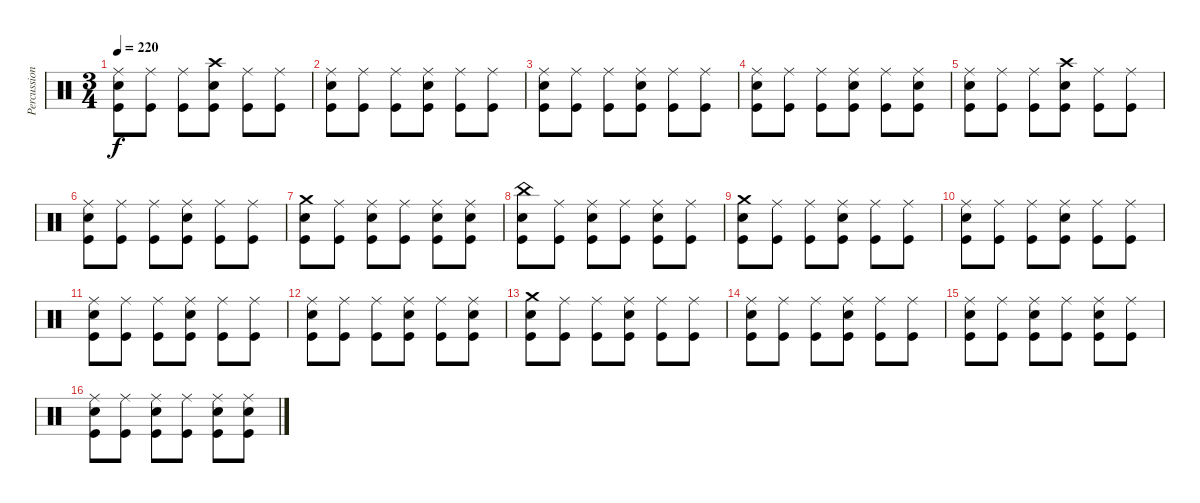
\track ("Percussion" "Percussion") {instrument percussion}
\staff {score}
\articulation defaults
\ts (3 4)
\tempo 220
\clef neutral
\ks c
("Ride (middle)" "Electric Snare (hit)" "Kick (hit)").8{dy f} ("Ride (middle)" "Kick (hit)").8 ("Ride (middle)" "Kick (hit)").8 ("Crash high (hit)" "Electric Snare (hit)" "Kick (hit)").8 ("Ride (middle)" "Kick (hit)").8 ("Ride (middle)" "Kick (hit)").8 |
("Ride (middle)" "Electric Snare (hit)" "Kick (hit)").8 ("Ride (middle)" "Kick (hit)").8 ("Ride (middle)" "Kick (hit)").8 ("Ride (middle)" "Electric Snare (hit)" "Kick (hit)").8 ("Ride (middle)" "Kick (hit)").8 ("Ride (middle)" "Kick (hit)").8 |
("Ride (middle)" "Electric Snare (hit)" "Kick (hit)").8 ("Ride (middle)" "Kick (hit)").8 ("Ride (middle)" "Kick (hit)").8 ("Ride (middle)" "Electric Snare (hit)" "Kick (hit)").8 ("Ride (middle)" "Kick (hit)").8 ("Ride (middle)" "Kick (hit)").8 |
("Ride (middle)" "Electric Snare (hit)" "Kick (hit)").8 ("Ride (middle)" "Kick (hit)").8 ("Ride (middle)" "Kick (hit)").8 ("Ride (middle)" "Electric Snare (hit)" "Kick (hit)").8 ("Ride (middle)" "Kick (hit)").8 ("Ride (middle)" "Electric Snare (hit)" "Kick (hit)").8 |
("Ride (middle)" "Electric Snare (hit)" "Kick (hit)").8 ("Ride (middle)" "Kick (hit)").8 ("Ride (middle)" "Kick (hit)").8 ("Crash high (hit)" "Electric Snare (hit)" "Kick (hit)").8 ("Ride (middle)" "Kick (hit)").8 ("Ride (middle)" "Kick (hit)").8 |
("Ride (middle)" "Electric Snare (hit)" "Kick (hit)").8 ("Ride (middle)" "Kick (hit)").8 ("Ride (middle)" "Kick (hit)").8 ("Ride (middle)" "Electric Snare (hit)" "Kick (hit)").8 ("Ride (middle)" "Kick (hit)").8 ("Ride (middle)" "Kick (hit)").8 |
("Crash medium (hit)" "Electric Snare (hit)" "Kick (hit)").8 ("Ride (middle)" "Kick (hit)").8 ("Ride (middle)" "Electric Snare (hit)" "Kick (hit)").8 ("Ride (middle)" "Kick (hit)").8 ("Ride (middle)" "Electric Snare (hit)" "Kick (hit)").8 ("Ride (middle)" "Electric Snare (hit)" "Kick (hit)").8 |
("China (hit)" "Electric Snare (hit)" "Kick (hit)").8 ("Ride (middle)" "Kick (hit)").8 ("Ride (middle)" "Electric Snare (hit)" "Kick (hit)").8 ("Ride (middle)" "Kick (hit)").8 ("Ride (middle)" "Electric Snare (hit)" "Kick (hit)").8 ("Ride (middle)" "Kick (hit)").8 |
("Crash medium (hit)" "Electric Snare (hit)" "Kick (hit)").8 ("Ride (middle)" "Kick (hit)").8 ("Ride (middle)" "Kick (hit)").8 ("Ride (middle)" "Electric Snare (hit)" "Kick (hit)").8 ("Ride (middle)" "Kick (hit)").8 ("Ride (middle)" "Kick (hit)").8 |
("Ride (middle)" "Electric Snare (hit)" "Kick (hit)").8 ("Ride (middle)" "Kick (hit)").8 ("Ride (middle)" "Kick (hit)").8 ("Ride (middle)" "Electric Snare (hit)" "Kick (hit)").8 ("Ride (middle)" "Kick (hit)").8 ("Ride (middle)" "Kick (hit)").8 |
("Ride (middle)" "Electric Snare (hit)" "Kick (hit)").8 ("Ride (middle)" "Kick (hit)").8 ("Ride (middle)" "Kick (hit)").8 ("Ride (middle)" "Electric Snare (hit)" "Kick (hit)").8 ("Ride (middle)" "Kick (hit)").8 ("Ride (middle)" "Kick (hit)").8 |
("Ride (middle)" "Electric Snare (hit)" "Kick (hit)").8 ("Ride (middle)" "Kick (hit)").8 ("Ride (middle)" "Kick (hit)").8 ("Ride (middle)" "Electric Snare (hit)" "Kick (hit)").8 ("Ride (middle)" "Kick (hit)").8 ("Ride (middle)" "Electric Snare (hit)" "Kick (hit)").8 |
("Crash medium (hit)" "Electric Snare (hit)" "Kick (hit)").8 ("Ride (middle)" "Kick (hit)").8 ("Ride (middle)" "Kick (hit)").8 ("Ride (middle)" "Electric Snare (hit)" "Kick (hit)").8 ("Ride (middle)" "Kick (hit)").8 ("Ride (middle)" "Kick (hit)").8 |
("Ride (middle)" "Electric Snare (hit)" "Kick (hit)").8 ("Ride (middle)" "Kick (hit)").8 ("Ride (middle)" "Kick (hit)").8 ("Ride (middle)" "Electric Snare (hit)" "Kick (hit)").8 ("Ride (middle)" "Kick (hit)").8 ("Ride (middle)" "Kick (hit)").8 |
("Ride (middle)" "Electric Snare (hit)" "Kick (hit)").8 ("Ride (middle)" "Kick (hit)").8 ("Ride (middle)" "Electric Snare (hit)" "Kick (hit)").8 ("Ride (middle)" "Kick (hit)").8 ("Ride (middle)" "Electric Snare (hit)" "Kick (hit)").8 ("Ride (middle)" "Kick (hit)").8 |
("Ride (middle)" "Electric Snare (hit)" "Kick (hit)").8 ("Ride (middle)" "Kick (hit)").8 ("Ride (middle)" "Electric Snare (hit)" "Kick (hit)").8 ("Ride (middle)" "Kick (hit)").8 ("Ride (middle)" "Electric Snare (hit)" "Kick (hit)").8 ("Ride (middle)" "Electric Snare (hit)" "Kick (hit)").8
